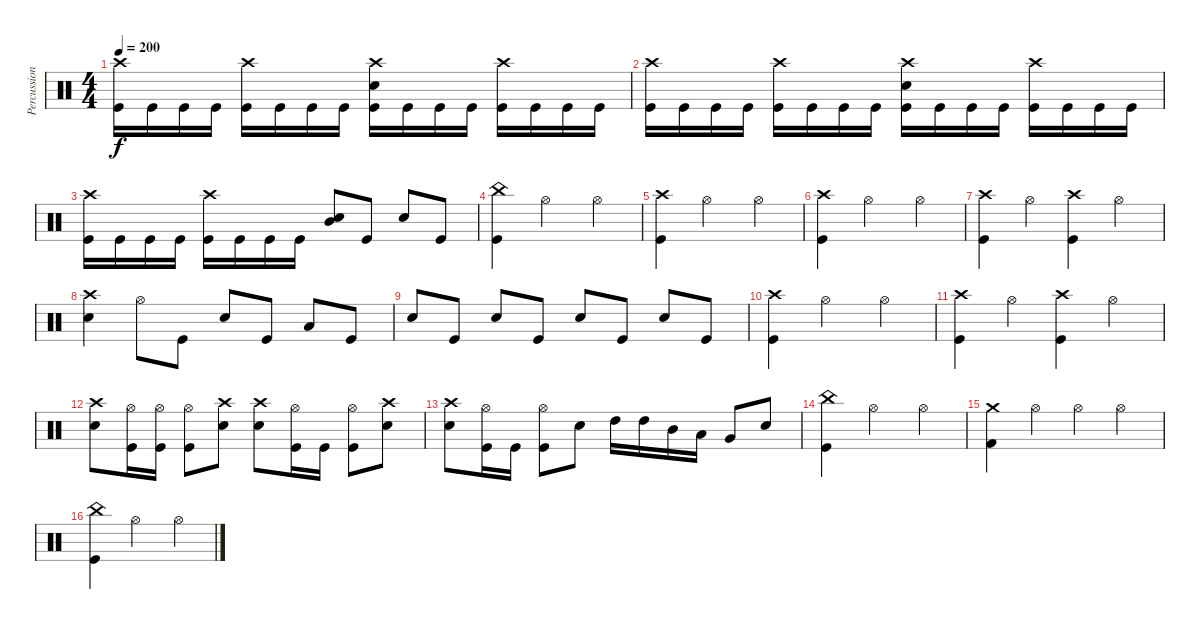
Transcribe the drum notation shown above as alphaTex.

\track ("Percussion" "Percussion") {instrument percussion}
\staff {score}
\articulation defaults
\ts (4 4)
\tempo 200
\clef neutral
\ks c
("Crash high (hit)" "Kick (hit)").16{dy f} "Kick (hit)".16 "Kick (hit)".16 "Kick (hit)".16 ("Crash high (hit)" "Kick (hit)").16 "Kick (hit)".16 "Kick (hit)".16 "Kick (hit)".16 ("Crash high (hit)" "Electric Snare (hit)" "Kick (hit)").16 "Kick (hit)".16 "Kick (hit)".16 "Kick (hit)".16 ("Crash high (hit)" "Kick (hit)").16 "Kick (hit)".16 "Kick (hit)".16 "Kick (hit)".16 |
("Crash high (hit)" "Kick (hit)").16 "Kick (hit)".16 "Kick (hit)".16 "Kick (hit)".16 ("Crash high (hit)" "Kick (hit)").16 "Kick (hit)".16 "Kick (hit)".16 "Kick (hit)".16 ("Crash high (hit)" "Electric Snare (hit)" "Kick (hit)").16 "Kick (hit)".16 "Kick (hit)".16 "Kick (hit)".16 ("Crash high (hit)" "Kick (hit)").16 "Kick (hit)".16 "Kick (hit)".16 "Kick (hit)".16 |
("Crash high (hit)" "Kick (hit)").16 "Kick (hit)".16 "Kick (hit)".16 "Kick (hit)".16 ("Crash high (hit)" "Kick (hit)").16 "Kick (hit)".16 "Kick (hit)".16 "Kick (hit)".16 ("Mid Tom (hit)" "Electric Snare (hit)").8 "Kick (hit)".8 "Electric Snare (hit)".8 "Kick (hit)".8 |
("China (hit)" "Kick (hit)").4 "Hi-Hat (open)".2 "Hi-Hat (open)".4 |
("Crash high (hit)" "Kick (hit)").4 "Hi-Hat (open)".2 "Hi-Hat (open)".4 |
("Crash high (hit)" "Kick (hit)").4 "Hi-Hat (open)".2 "Hi-Hat (open)".4 |
("Crash high (hit)" "Kick (hit)").4 "Hi-Hat (open)".4 ("Crash high (hit)" "Kick (hit)").4 "Hi-Hat (open)".4 |
("Crash high (hit)" "Electric Snare (hit)").4 "Hi-Hat (open)".8 "Kick (hit)".8 "Electric Snare (hit)".8 "Kick (hit)".8 "Low Tom (hit)".8 "Kick (hit)".8 |
"Electric Snare (hit)".8 "Kick (hit)".8 "Electric Snare (hit)".8 "Kick (hit)".8 "Electric Snare (hit)".8 "Kick (hit)".8 "Electric Snare (hit)".8 "Kick (hit)".8 |
("Crash high (hit)" "Kick (hit)").4 "Hi-Hat (open)".2 "Hi-Hat (open)".4 |
("Crash high (hit)" "Kick (hit)").4 "Hi-Hat (open)".4 ("Crash high (hit)" "Kick (hit)").4 "Hi-Hat (open)".4 |
("Crash high (hit)" "Electric Snare (hit)").8 ("Hi-Hat (open)" "Kick (hit)").16 ("Hi-Hat (open)" "Kick (hit)").16 ("Hi-Hat (open)" "Kick (hit)").8 ("Crash high (hit)" "Electric Snare (hit)").8 ("Crash high (hit)" "Electric Snare (hit)").8 ("Hi-Hat (open)" "Kick (hit)").16 "Kick (hit)".16 ("Hi-Hat (open)" "Kick (hit)").8 ("Crash high (hit)" "Electric Snare (hit)").8 |
("Crash high (hit)" "Electric Snare (hit)").8 ("Hi-Hat (open)" "Kick (hit)").16 "Kick (hit)".16 ("Hi-Hat (open)" "Kick (hit)").8 "Electric Snare (hit)".8 "High Tom (hit)".16 "High Tom (hit)".16 "Mid Tom (hit)".16 "Low Tom (hit)".16 "Very Low Tom (hit)".8 "Electric Snare (hit)".8 |
("China (hit)" "Kick (hit)").4 "Hi-Hat (open)".2 "Hi-Hat (open)".4 |
("Crash medium (hit)" "Kick (hit) 2").4 "Hi-Hat (open)".4 "Hi-Hat (open)".4 "Hi-Hat (open)".4 |
("China (hit)" "Kick (hit)").4 "Hi-Hat (open)".2 "Hi-Hat (open)".4
